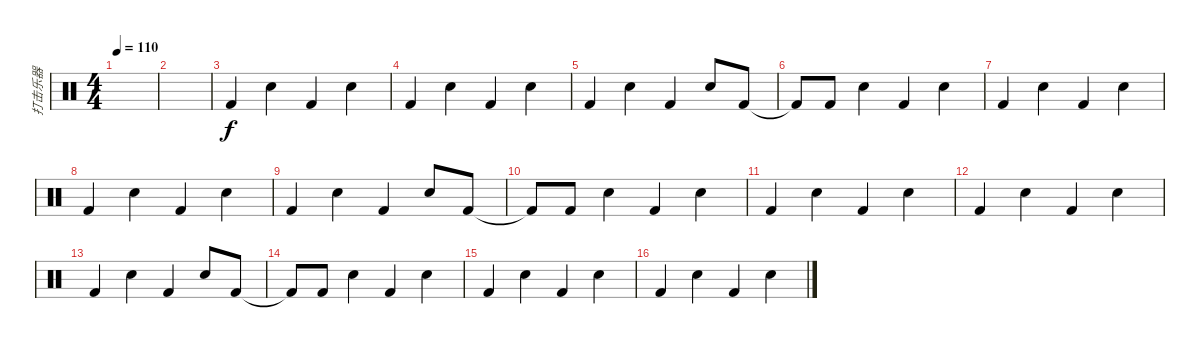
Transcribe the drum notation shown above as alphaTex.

\track ("打击乐器" "打击乐器") {instrument percussion}
\staff {score}
\articulation defaults
\ts (4 4)
\tempo 110
\clef neutral
\ks c
|
|
"Kick (hit) 2".4 "Snare (hit) 2".4 "Kick (hit) 2".4 "Snare (hit) 2".4 |
"Kick (hit) 2".4 "Snare (hit) 2".4 "Kick (hit) 2".4 "Snare (hit) 2".4 |
"Kick (hit) 2".4 "Snare (hit) 2".4 "Kick (hit) 2".4 "Snare (hit) 2".8 "Kick (hit) 2".8 |
"Kick (hit) 2"{t}.8 "Kick (hit) 2".8 "Snare (hit) 2".4 "Kick (hit) 2".4 "Snare (hit) 2".4 |
"Kick (hit) 2".4 "Snare (hit) 2".4 "Kick (hit) 2".4 "Snare (hit) 2".4 |
"Kick (hit) 2".4 "Snare (hit) 2".4 "Kick (hit) 2".4 "Snare (hit) 2".4 |
"Kick (hit) 2".4 "Snare (hit) 2".4 "Kick (hit) 2".4 "Snare (hit) 2".8 "Kick (hit) 2".8 |
"Kick (hit) 2"{t}.8 "Kick (hit) 2".8 "Snare (hit) 2".4 "Kick (hit) 2".4 "Snare (hit) 2".4 |
"Kick (hit) 2".4 "Snare (hit) 2".4 "Kick (hit) 2".4 "Snare (hit) 2".4 |
"Kick (hit) 2".4 "Snare (hit) 2".4 "Kick (hit) 2".4 "Snare (hit) 2".4 |
"Kick (hit) 2".4 "Snare (hit) 2".4 "Kick (hit) 2".4 "Snare (hit) 2".8 "Kick (hit) 2".8 |
"Kick (hit) 2"{t}.8 "Kick (hit) 2".8 "Snare (hit) 2".4 "Kick (hit) 2".4 "Snare (hit) 2".4 |
"Kick (hit) 2".4 "Snare (hit) 2".4 "Kick (hit) 2".4 "Snare (hit) 2".4 |
"Kick (hit) 2".4 "Snare (hit) 2".4 "Kick (hit) 2".4 "Snare (hit) 2".4
